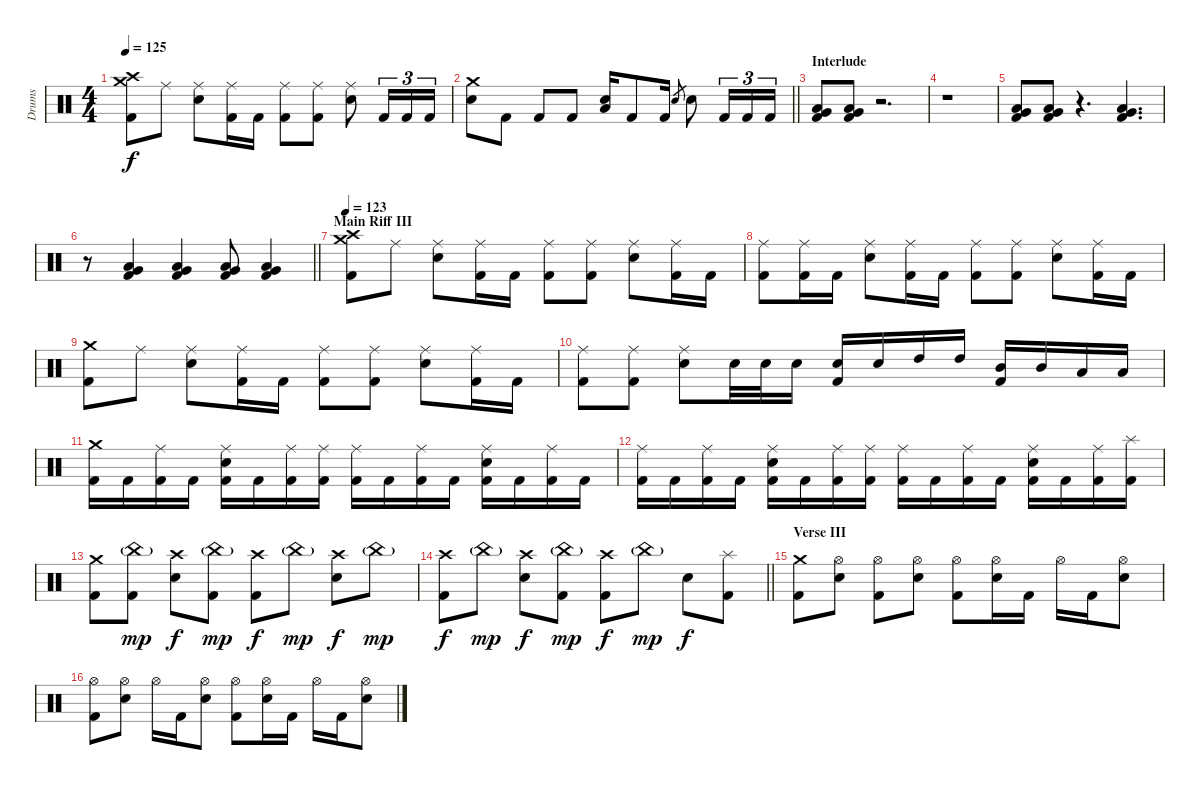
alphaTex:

\track ("Drums" "Drums") {instrument percussion}
\staff {score}
\articulation defaults
\ts (4 4)
\tempo 125
\clef neutral
\ks c
("Crash medium (hit)" "Crash high (hit)" "Kick (hit) 2").8{dy f} "Ride (middle)".8 ("Ride (middle)" "Electric Snare (hit)").8 ("Ride (middle)" "Kick (hit) 2").16 "Kick (hit) 2".16 ("Ride (middle)" "Kick (hit) 2").8 ("Ride (middle)" "Kick (hit) 2").8 ("Ride (middle)" "Electric Snare (hit)").8 "Kick (hit) 2".16{tu (3 2)} "Kick (hit) 2".16{tu (3 2)} "Kick (hit) 2".16{tu (3 2)} |
\barLineRight lightlight
("Crash medium (hit)" "Electric Snare (hit)").8 "Kick (hit) 2".8 "Kick (hit) 2".8 "Kick (hit) 2".8 ("Low Floor Tom (hit)" "Electric Snare (hit)").16 "Kick (hit) 2".8 "Kick (hit) 2".16 "Electric Snare (hit)".8{gr} "Electric Snare (hit)".8 "Kick (hit) 2".16{tu (3 2)} "Kick (hit) 2".16{tu (3 2)} "Kick (hit) 2".16{tu (3 2)} |
\section ("" "Interlude")
("Very Low Tom (hit)" "Low Floor Tom (hit)" "Kick (hit) 2").8 ("Very Low Tom (hit)" "Low Floor Tom (hit)" "Kick (hit) 2").8 r.2{d} |
r.1 |
("Very Low Tom (hit)" "Low Floor Tom (hit)" "Kick (hit) 2").8 ("Very Low Tom (hit)" "Low Floor Tom (hit)" "Kick (hit) 2").8 r.4{d} ("Very Low Tom (hit)" "Low Floor Tom (hit)" "Kick (hit) 2").4{d} |
\barLineRight lightlight
r.8 ("Very Low Tom (hit)" "Low Floor Tom (hit)" "Kick (hit) 2").4 ("Very Low Tom (hit)" "Low Floor Tom (hit)" "Kick (hit) 2").4 ("Very Low Tom (hit)" "Low Floor Tom (hit)" "Kick (hit) 2").8 ("Very Low Tom (hit)" "Low Floor Tom (hit)" "Kick (hit) 2").4 |
\section ("" "Main Riff III")
\tempo 123
("Crash medium (hit)" "Crash high (hit)" "Kick (hit) 2").8 "Ride (middle)".8 ("Ride (middle)" "Electric Snare (hit)").8 ("Ride (middle)" "Kick (hit) 2").16 "Kick (hit) 2".16 ("Ride (middle)" "Kick (hit) 2").8 ("Ride (middle)" "Kick (hit) 2").8 ("Ride (middle)" "Electric Snare (hit)").8 ("Ride (middle)" "Kick (hit) 2").16 "Kick (hit) 2".16 |
("Ride (middle)" "Kick (hit) 2").8 ("Ride (middle)" "Kick (hit) 2").16 "Kick (hit) 2".16 ("Ride (middle)" "Electric Snare (hit)").8 ("Ride (middle)" "Kick (hit) 2").16 "Kick (hit) 2".16 ("Ride (middle)" "Kick (hit) 2").8 ("Ride (middle)" "Kick (hit) 2").8 ("Ride (middle)" "Electric Snare (hit)").8 ("Ride (middle)" "Kick (hit) 2").16 "Kick (hit) 2".16 |
("Crash medium (hit)" "Kick (hit) 2").8 "Ride (middle)".8 ("Ride (middle)" "Electric Snare (hit)").8 ("Ride (middle)" "Kick (hit) 2").16 "Kick (hit) 2".16 ("Ride (middle)" "Kick (hit) 2").8 ("Ride (middle)" "Kick (hit) 2").8 ("Ride (middle)" "Electric Snare (hit)").8 ("Ride (middle)" "Kick (hit) 2").16 "Kick (hit) 2".16 |
("Ride (middle)" "Kick (hit) 2").8 ("Ride (middle)" "Kick (hit) 2").8 ("Ride (middle)" "Electric Snare (hit)").8 "Electric Snare (hit)".32 "Electric Snare (hit)".32 "Electric Snare (hit)".16 ("Electric Snare (hit)" "Kick (hit) 2").16 "Electric Snare (hit)".16 "High Tom (hit)".16 "High Tom (hit)".16 ("Mid Tom (hit)" "Kick (hit) 2").16 "Mid Tom (hit)".16 "Low Tom (hit)".16 "Low Tom (hit)".16 |
("Crash medium (hit)" "Kick (hit) 2").16 "Kick (hit) 2".16 ("Ride (middle)" "Kick (hit) 2").16 "Kick (hit) 2".16 ("Ride (middle)" "Electric Snare (hit)" "Kick (hit) 2").16 "Kick (hit) 2".16 ("Ride (middle)" "Kick (hit) 2").16 ("Ride (middle)" "Kick (hit) 2").16 ("Ride (middle)" "Kick (hit) 2").16 "Kick (hit) 2".16 ("Ride (middle)" "Kick (hit) 2").16 "Kick (hit) 2".16 ("Ride (middle)" "Electric Snare (hit)" "Kick (hit) 2").16 "Kick (hit) 2".16 ("Ride (middle)" "Kick (hit) 2").16 "Kick (hit) 2".16 |
("Ride (middle)" "Kick (hit) 2").16 "Kick (hit) 2".16 ("Ride (middle)" "Kick (hit) 2").16 "Kick (hit) 2".16 ("Ride (middle)" "Electric Snare (hit)" "Kick (hit) 2").16 "Kick (hit) 2".16 ("Ride (middle)" "Kick (hit) 2").16 ("Ride (middle)" "Kick (hit) 2").16 ("Ride (middle)" "Kick (hit) 2").16 "Kick (hit) 2".16 ("Ride (middle)" "Kick (hit) 2").16 "Kick (hit) 2".16 ("Ride (middle)" "Electric Snare (hit)" "Kick (hit) 2").16 "Kick (hit) 2".16 ("Ride (middle)" "Kick (hit) 2").16 ("Splash (hit)" "Kick (hit) 2").16 |
("Crash medium (hit)" "Kick (hit) 2").8 ("China (hit)"{g} "Kick (hit) 2").8{dy mp} ("Crash high (hit)" "Electric Snare (hit)").8{dy f} ("China (hit)"{g} "Kick (hit) 2").8{dy mp} ("Crash high (hit)" "Kick (hit) 2").8{dy f} "China (hit)"{g}.8{dy mp} ("Crash high (hit)" "Electric Snare (hit)").8{dy f} "China (hit)"{g}.8{dy mp} |
\barLineRight lightlight
("Crash high (hit)" "Kick (hit) 2").8{dy f} "China (hit)"{g}.8{dy mp} ("Crash high (hit)" "Electric Snare (hit)").8{dy f} ("China (hit)"{g} "Kick (hit) 2").8{dy mp} ("Crash high (hit)" "Kick (hit) 2").8{dy f} "China (hit)"{g}.8{dy mp} "Electric Snare (hit)".8{dy f} ("Splash (hit)" "Kick (hit) 2").8 |
\section ("" "Verse III")
("Crash medium (hit)" "Kick (hit) 2").8 ("Hi-Hat (open)" "Electric Snare (hit)").8 ("Hi-Hat (open)" "Kick (hit) 2").8 ("Hi-Hat (open)" "Electric Snare (hit)").8 ("Hi-Hat (open)" "Kick (hit) 2").8 ("Hi-Hat (open)" "Electric Snare (hit)").16 "Kick (hit) 2".16 "Hi-Hat (open)".16 "Kick (hit) 2".16 ("Hi-Hat (open)" "Electric Snare (hit)").8 |
("Hi-Hat (open)" "Kick (hit) 2").8 ("Hi-Hat (open)" "Electric Snare (hit)").8 "Hi-Hat (open)".16 "Kick (hit) 2".16 ("Hi-Hat (open)" "Electric Snare (hit)").8 ("Hi-Hat (open)" "Kick (hit) 2").8 ("Hi-Hat (open)" "Electric Snare (hit)").16 "Kick (hit) 2".16 "Hi-Hat (open)".16 "Kick (hit) 2".16 ("Hi-Hat (open)" "Electric Snare (hit)").8
